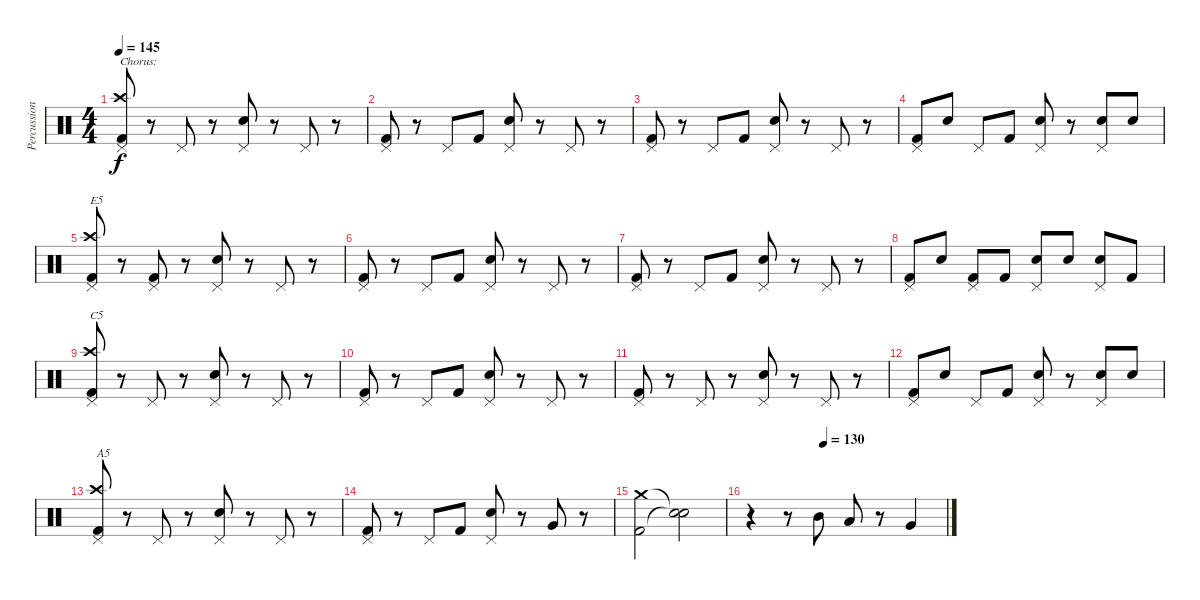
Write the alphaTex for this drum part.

\track ("Percussion" "Percussion") {instrument percussion}
\staff {score}
\articulation defaults
\ts (4 4)
\tempo 145
\clef neutral
\ks c
("Pedal Hi-Hat (hit)" "Crash high (hit)" "Kick (hit) 2").8{txt "Chorus:" dy f} r.8 "Pedal Hi-Hat (hit)".8 r.8 ("Pedal Hi-Hat (hit)" "Electric Snare (hit)").8 r.8 "Pedal Hi-Hat (hit)".8 r.8 |
("Pedal Hi-Hat (hit)" "Kick (hit) 2").8 r.8 "Pedal Hi-Hat (hit)".8 "Kick (hit) 2".8 ("Pedal Hi-Hat (hit)" "Electric Snare (hit)").8 r.8 "Pedal Hi-Hat (hit)".8 r.8 |
("Pedal Hi-Hat (hit)" "Kick (hit) 2").8 r.8 "Pedal Hi-Hat (hit)".8 "Kick (hit) 2".8 ("Pedal Hi-Hat (hit)" "Electric Snare (hit)").8 r.8 "Pedal Hi-Hat (hit)".8 r.8 |
("Pedal Hi-Hat (hit)" "Kick (hit) 2").8 "Electric Snare (hit)".8 "Pedal Hi-Hat (hit)".8 "Kick (hit) 2".8 ("Pedal Hi-Hat (hit)" "Electric Snare (hit)").8 r.8 ("Pedal Hi-Hat (hit)" "Electric Snare (hit)").8 "Electric Snare (hit)".8 |
("Pedal Hi-Hat (hit)" "Crash high (hit)" "Kick (hit) 2").8{txt "E5"} r.8 ("Pedal Hi-Hat (hit)" "Kick (hit) 2").8 r.8 ("Pedal Hi-Hat (hit)" "Electric Snare (hit)").8 r.8 "Pedal Hi-Hat (hit)".8 r.8 |
("Pedal Hi-Hat (hit)" "Kick (hit) 2").8 r.8 "Pedal Hi-Hat (hit)".8 "Kick (hit) 2".8 ("Pedal Hi-Hat (hit)" "Electric Snare (hit)").8 r.8 "Pedal Hi-Hat (hit)".8 r.8 |
("Pedal Hi-Hat (hit)" "Kick (hit) 2").8 r.8 "Pedal Hi-Hat (hit)".8 "Kick (hit) 2".8 ("Pedal Hi-Hat (hit)" "Electric Snare (hit)").8 r.8 "Pedal Hi-Hat (hit)".8 r.8 |
("Pedal Hi-Hat (hit)" "Kick (hit) 2").8 "Electric Snare (hit)".8 ("Pedal Hi-Hat (hit)" "Kick (hit) 2").8 "Kick (hit) 2".8 ("Pedal Hi-Hat (hit)" "Electric Snare (hit)").8 "Electric Snare (hit)".8 ("Pedal Hi-Hat (hit)" "Electric Snare (hit)").8 "Kick (hit) 2".8 |
("Pedal Hi-Hat (hit)" "Crash high (hit)" "Kick (hit) 2").8{txt "C5"} r.8 "Pedal Hi-Hat (hit)".8 r.8 ("Pedal Hi-Hat (hit)" "Electric Snare (hit)").8 r.8 "Pedal Hi-Hat (hit)".8 r.8 |
("Pedal Hi-Hat (hit)" "Kick (hit) 2").8 r.8 "Pedal Hi-Hat (hit)".8 "Kick (hit) 2".8 ("Pedal Hi-Hat (hit)" "Electric Snare (hit)").8 r.8 "Pedal Hi-Hat (hit)".8 r.8 |
("Pedal Hi-Hat (hit)" "Kick (hit) 2").8 r.8 "Pedal Hi-Hat (hit)".8 r.8 ("Pedal Hi-Hat (hit)" "Electric Snare (hit)").8 r.8 "Pedal Hi-Hat (hit)".8 r.8 |
("Pedal Hi-Hat (hit)" "Kick (hit) 2").8 "Electric Snare (hit)".8 "Pedal Hi-Hat (hit)".8 "Kick (hit) 2".8 ("Pedal Hi-Hat (hit)" "Electric Snare (hit)").8 r.8 ("Pedal Hi-Hat (hit)" "Electric Snare (hit)").8 "Electric Snare (hit)".8 |
("Pedal Hi-Hat (hit)" "Crash high (hit)" "Kick (hit) 2").8{txt "A5"} r.8 "Pedal Hi-Hat (hit)".8 r.8 ("Pedal Hi-Hat (hit)" "Electric Snare (hit)").8 r.8 "Pedal Hi-Hat (hit)".8 r.8 |
("Pedal Hi-Hat (hit)" "Kick (hit) 2").8 r.8 "Pedal Hi-Hat (hit)".8 "Kick (hit) 2".8 ("Pedal Hi-Hat (hit)" "Electric Snare (hit)").8 r.8 "Very Low Tom (hit)".8 r.8 |
("Crash medium (hit)" "Kick (hit) 2").2 ("Snare (hit)"{t} "Snare (hit)"{t}).2 |
\tempo (130 0.375)
r.4 r.8 "Mid Tom (hit)".8 "Low Tom (hit)".8 r.8 "Very Low Tom (hit)".4
